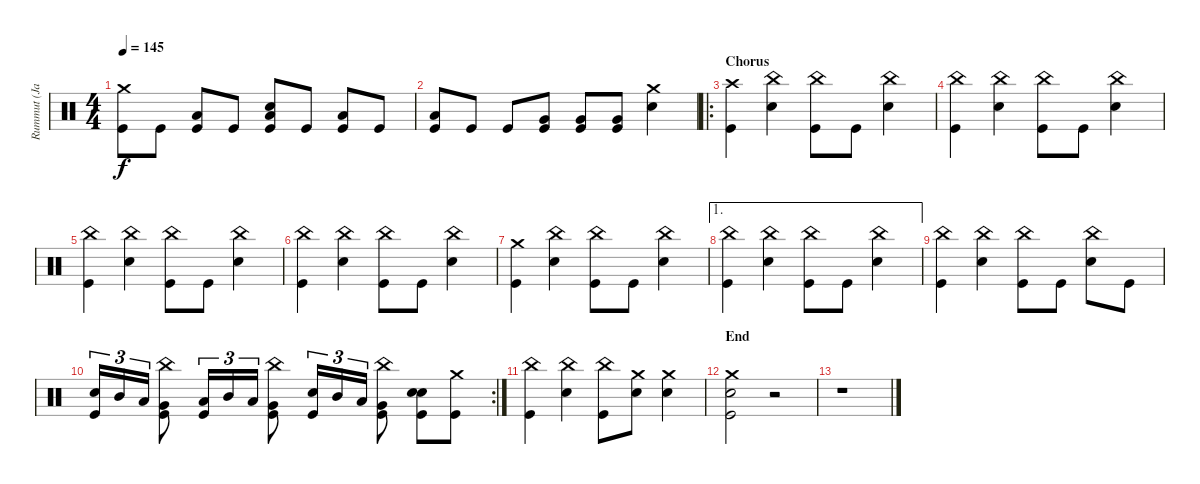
\track ("Rummut (Janne)" "Rummut (Ja") {instrument percussion}
\staff {score}
\articulation defaults
\ts (4 4)
\tempo 145
\clef neutral
\ks c
("Crash medium (hit)" "Kick (hit)").8{dy f} "Kick (hit)".8 ("Low Tom (hit)" "Kick (hit)").8 "Kick (hit)".8 ("Low Tom (hit)" "Snare (hit) 2" "Kick (hit)").8 "Kick (hit)".8 ("Low Tom (hit)" "Kick (hit)").8 "Kick (hit)".8 |
("Low Tom (hit)" "Kick (hit)").8 "Kick (hit)".8 "Kick (hit)".8 ("Very Low Tom (hit)" "Kick (hit)").8 ("Very Low Tom (hit)" "Kick (hit)").8 ("Very Low Tom (hit)" "Kick (hit)").8 ("Crash medium (hit)" "Snare (hit) 2").4 |
\ro
\section ("" "Chorus")
("Crash high (hit)" "Kick (hit)").4 ("China (hit)" "Snare (hit) 2").4 ("China (hit)" "Kick (hit)").8 "Kick (hit)".8 ("China (hit)" "Snare (hit) 2").4 |
("China (hit)" "Kick (hit)").4 ("China (hit)" "Snare (hit) 2").4 ("China (hit)" "Kick (hit)").8 "Kick (hit)".8 ("China (hit)" "Snare (hit) 2").4 |
("China (hit)" "Kick (hit)").4 ("China (hit)" "Snare (hit) 2").4 ("China (hit)" "Kick (hit)").8 "Kick (hit)".8 ("China (hit)" "Snare (hit) 2").4 |
("China (hit)" "Kick (hit)").4 ("China (hit)" "Snare (hit) 2").4 ("China (hit)" "Kick (hit)").8 "Kick (hit)".8 ("China (hit)" "Snare (hit) 2").4 |
("Crash medium (hit)" "Kick (hit)").4 ("China (hit)" "Snare (hit) 2").4 ("China (hit)" "Kick (hit)").8 "Kick (hit)".8 ("China (hit)" "Snare (hit) 2").4 |
\ae 1
("China (hit)" "Kick (hit)").4 ("China (hit)" "Snare (hit) 2").4 ("China (hit)" "Kick (hit)").8 "Kick (hit)".8 ("China (hit)" "Snare (hit) 2").4 |
("China (hit)" "Kick (hit)").4 ("China (hit)" "Snare (hit) 2").4 ("China (hit)" "Kick (hit)").8 "Kick (hit)".8 ("China (hit)" "Snare (hit) 2").8 "Kick (hit)".8 |
\rc 2
("Snare (hit) 2" "Kick (hit)").16{tu (3 2)} "Mid Tom (hit)".16{tu (3 2)} "Low Tom (hit)".16{tu (3 2)} ("China (hit)" "Very Low Tom (hit)" "Kick (hit)").8 ("Low Tom (hit)" "Kick (hit)").16{tu (3 2)} "Mid Tom (hit)".16{tu (3 2)} "Low Tom (hit)".16{tu (3 2)} ("China (hit)" "Very Low Tom (hit)" "Kick (hit)").8 ("Snare (hit) 2" "Kick (hit)").16{tu (3 2)} "Mid Tom (hit)".16{tu (3 2)} "Low Tom (hit)".16{tu (3 2)} ("China (hit)" "Very Low Tom (hit)" "Kick (hit)").8 ("Snare (hit) 2" "Snare (hit) 2" "Kick (hit)").8 ("Crash medium (hit)" "Kick (hit)").8 |
("China (hit)" "Kick (hit)").4 ("China (hit)" "Snare (hit) 2").4 ("China (hit)" "Kick (hit)").8 ("Crash medium (hit)" "Snare (hit) 2").8 ("Crash medium (hit)" "Snare (hit) 2").4 |
\section ("" "End")
("Crash medium (hit)" "Snare (hit) 2" "Kick (hit)").2 r.2 |
r.1
